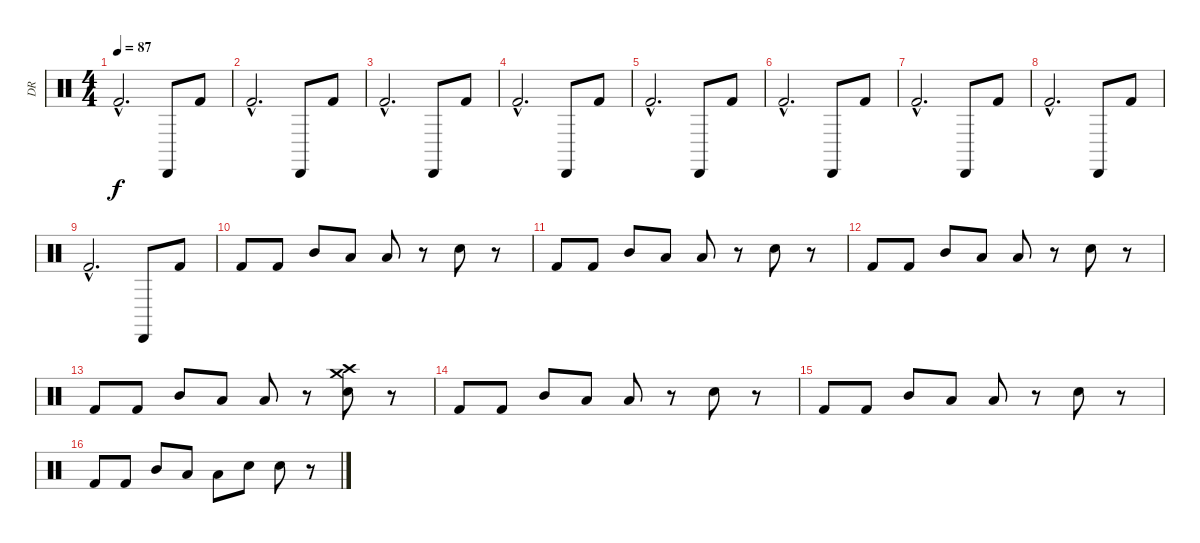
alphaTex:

\track ("DR" "DR") {instrument percussion}
\staff {score}
\articulation defaults
\ts (4 4)
\tempo 87
\clef neutral
\ks c "Kick (hit) 2"{hac}.2{d dy f} "Cabasa (hit)".8 "Kick (hit) 2".8
|
"Kick (hit) 2"{hac}.2{d} "Cabasa (hit)".8 "Kick (hit) 2".8 |
"Kick (hit) 2"{hac}.2{d} "Cabasa (hit)".8 "Kick (hit) 2".8 |
"Kick (hit) 2"{hac}.2{d} "Cabasa (hit)".8 "Kick (hit) 2".8 |
"Kick (hit) 2"{hac}.2{d} "Cabasa (hit)".8 "Kick (hit) 2".8 |
"Kick (hit) 2"{hac}.2{d} "Cabasa (hit)".8 "Kick (hit) 2".8 |
"Kick (hit) 2"{hac}.2{d} "Cabasa (hit)".8 "Kick (hit) 2".8 |
"Kick (hit) 2"{hac}.2{d} "Cabasa (hit)".8 "Kick (hit) 2".8 |
"Kick (hit) 2"{hac}.2{d} "Cabasa (hit)".8 "Kick (hit) 2".8 |
"Kick (hit) 2".8 "Kick (hit) 2".8 "Mid Tom (hit)".8 "Low Tom (hit)".8 "Low Floor Tom (hit)".8 r.8 "Snare (hit) 2".8 r.8 |
"Kick (hit) 2".8 "Kick (hit) 2".8 "Mid Tom (hit)".8 "Low Tom (hit)".8 "Low Floor Tom (hit)".8 r.8 "Snare (hit) 2".8 r.8 |
"Kick (hit) 2".8 "Kick (hit) 2".8 "Mid Tom (hit)".8 "Low Tom (hit)".8 "Low Floor Tom (hit)".8 r.8 "Snare (hit) 2".8 r.8 |
"Kick (hit) 2".8 "Kick (hit) 2".8 "Mid Tom (hit)".8 "Low Tom (hit)".8 "Low Floor Tom (hit)".8 r.8 ("Crash high (hit)" "Crash medium (hit)" "Snare (hit) 2").8 r.8 |
"Kick (hit) 2".8 "Kick (hit) 2".8 "Mid Tom (hit)".8 "Low Tom (hit)".8 "Low Floor Tom (hit)".8 r.8 "Snare (hit) 2".8 r.8 |
"Kick (hit) 2".8 "Kick (hit) 2".8 "Mid Tom (hit)".8 "Low Tom (hit)".8 "Low Floor Tom (hit)".8 r.8 "Snare (hit) 2".8 r.8 |
"Kick (hit) 2".8 "Kick (hit) 2".8 "Mid Tom (hit)".8 "Low Tom (hit)".8 "Low Floor Tom (hit)".8 "Snare (hit) 2".8 "Snare (hit) 2".8 r.8
